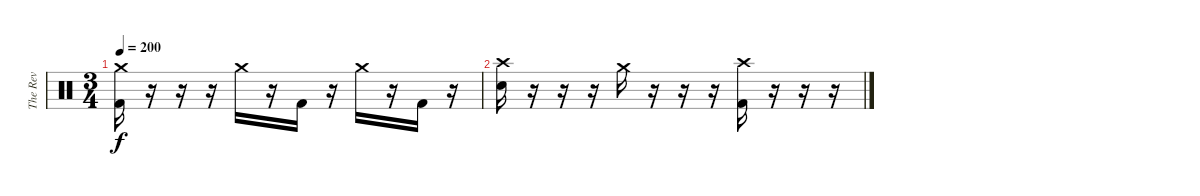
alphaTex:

\track ("The Rev" "The Rev") {instrument percussion}
\staff {score}
\articulation defaults
\ts (3 4)
\tempo 200
\clef neutral
\ks c
("Crash medium (hit)" "Kick (hit) 2").16{dy f} r.16 r.16 r.16 "Crash medium (hit)".16 r.16 "Kick (hit) 2".16 r.16 "Crash medium (hit)".16 r.16 "Kick (hit) 2".16 r.16 |
("Crash high (hit)" "Electric Snare (hit)").16 r.16 r.16 r.16 "Crash medium (hit)".16 r.16 r.16 r.16 ("Crash high (hit)" "Kick (hit) 2").16 r.16 r.16 r.16
